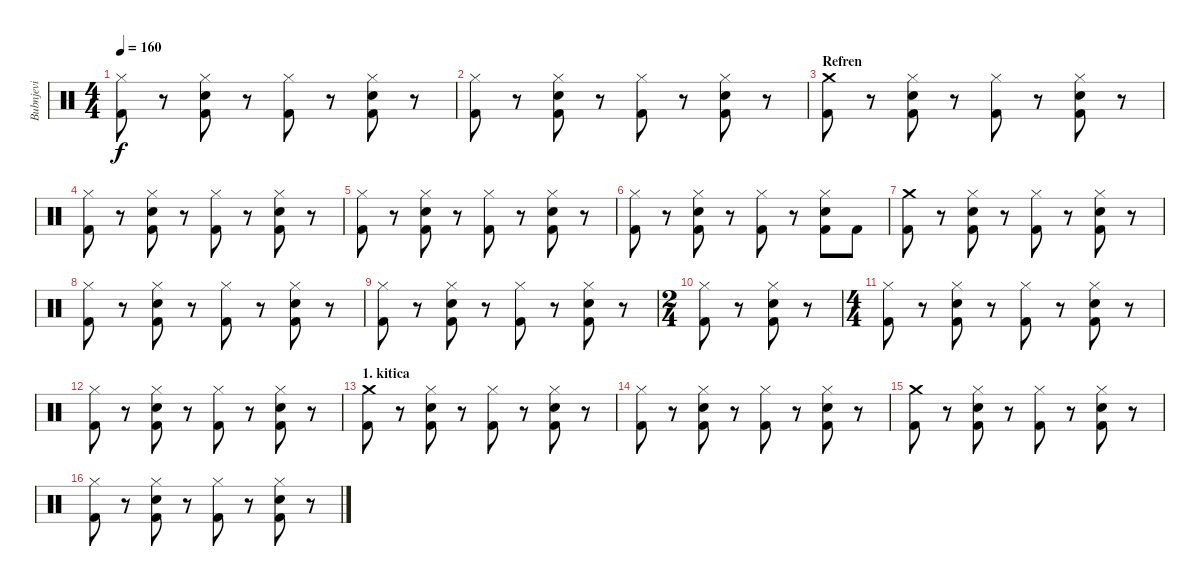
\track ("Bubnjevi" "Bubnjevi") {instrument percussion}
\staff {score}
\articulation defaults
\ts (4 4)
\tempo 160
\clef neutral
\ks c
("Hi-Hat (closed)" "Kick (hit) 2").8{dy f} r.8 ("Electric Snare (hit)" "Hi-Hat (closed)" "Kick (hit) 2").8 r.8 ("Hi-Hat (closed)" "Kick (hit) 2").8 r.8 ("Electric Snare (hit)" "Hi-Hat (closed)" "Kick (hit) 2").8 r.8 |
("Hi-Hat (closed)" "Kick (hit) 2").8 r.8 ("Electric Snare (hit)" "Hi-Hat (closed)" "Kick (hit) 2").8 r.8 ("Hi-Hat (closed)" "Kick (hit) 2").8 r.8 ("Electric Snare (hit)" "Hi-Hat (closed)" "Kick (hit) 2").8 r.8 |
\section ("" "Refren")
("Crash medium (hit)" "Kick (hit) 2").8 r.8 ("Electric Snare (hit)" "Hi-Hat (closed)" "Kick (hit) 2").8 r.8 ("Hi-Hat (closed)" "Kick (hit) 2").8 r.8 ("Electric Snare (hit)" "Hi-Hat (closed)" "Kick (hit) 2").8 r.8 |
("Hi-Hat (closed)" "Kick (hit) 2").8 r.8 ("Electric Snare (hit)" "Hi-Hat (closed)" "Kick (hit) 2").8 r.8 ("Hi-Hat (closed)" "Kick (hit) 2").8 r.8 ("Electric Snare (hit)" "Hi-Hat (closed)" "Kick (hit) 2").8 r.8 |
("Hi-Hat (closed)" "Kick (hit) 2").8 r.8 ("Electric Snare (hit)" "Hi-Hat (closed)" "Kick (hit) 2").8 r.8 ("Hi-Hat (closed)" "Kick (hit) 2").8 r.8 ("Electric Snare (hit)" "Hi-Hat (closed)" "Kick (hit) 2").8 r.8 |
("Hi-Hat (closed)" "Kick (hit) 2").8 r.8 ("Electric Snare (hit)" "Hi-Hat (closed)" "Kick (hit) 2").8 r.8 ("Hi-Hat (closed)" "Kick (hit) 2").8 r.8 ("Electric Snare (hit)" "Hi-Hat (closed)" "Kick (hit) 2").8 "Kick (hit) 2".8 |
("Crash medium (hit)" "Kick (hit) 2").8 r.8 ("Electric Snare (hit)" "Hi-Hat (closed)" "Kick (hit) 2").8 r.8 ("Hi-Hat (closed)" "Kick (hit) 2").8 r.8 ("Electric Snare (hit)" "Hi-Hat (closed)" "Kick (hit) 2").8 r.8 |
("Hi-Hat (closed)" "Kick (hit) 2").8 r.8 ("Electric Snare (hit)" "Hi-Hat (closed)" "Kick (hit) 2").8 r.8 ("Hi-Hat (closed)" "Kick (hit) 2").8 r.8 ("Electric Snare (hit)" "Hi-Hat (closed)" "Kick (hit) 2").8 r.8 |
("Hi-Hat (closed)" "Kick (hit) 2").8 r.8 ("Electric Snare (hit)" "Hi-Hat (closed)" "Kick (hit) 2").8 r.8 ("Hi-Hat (closed)" "Kick (hit) 2").8 r.8 ("Electric Snare (hit)" "Hi-Hat (closed)" "Kick (hit) 2").8 r.8 |
\ts (2 4)
("Hi-Hat (closed)" "Kick (hit) 2").8 r.8 ("Electric Snare (hit)" "Hi-Hat (closed)" "Kick (hit) 2").8 r.8 |
\ts (4 4)
("Hi-Hat (closed)" "Kick (hit) 2").8 r.8 ("Electric Snare (hit)" "Hi-Hat (closed)" "Kick (hit) 2").8 r.8 ("Hi-Hat (closed)" "Kick (hit) 2").8 r.8 ("Electric Snare (hit)" "Hi-Hat (closed)" "Kick (hit) 2").8 r.8 |
("Hi-Hat (closed)" "Kick (hit) 2").8 r.8 ("Electric Snare (hit)" "Hi-Hat (closed)" "Kick (hit) 2").8 r.8 ("Hi-Hat (closed)" "Kick (hit) 2").8 r.8 ("Electric Snare (hit)" "Hi-Hat (closed)" "Kick (hit) 2").8 r.8 |
\section ("" "1. kitica")
("Crash medium (hit)" "Kick (hit) 2").8 r.8 ("Electric Snare (hit)" "Hi-Hat (closed)" "Kick (hit) 2").8 r.8 ("Hi-Hat (closed)" "Kick (hit) 2").8 r.8 ("Electric Snare (hit)" "Hi-Hat (closed)" "Kick (hit) 2").8 r.8 |
("Hi-Hat (closed)" "Kick (hit) 2").8 r.8 ("Electric Snare (hit)" "Hi-Hat (closed)" "Kick (hit) 2").8 r.8 ("Hi-Hat (closed)" "Kick (hit) 2").8 r.8 ("Electric Snare (hit)" "Hi-Hat (closed)" "Kick (hit) 2").8 r.8 |
("Crash medium (hit)" "Kick (hit) 2").8 r.8 ("Electric Snare (hit)" "Hi-Hat (closed)" "Kick (hit) 2").8 r.8 ("Hi-Hat (closed)" "Kick (hit) 2").8 r.8 ("Electric Snare (hit)" "Hi-Hat (closed)" "Kick (hit) 2").8 r.8 |
("Hi-Hat (closed)" "Kick (hit) 2").8 r.8 ("Electric Snare (hit)" "Hi-Hat (closed)" "Kick (hit) 2").8 r.8 ("Hi-Hat (closed)" "Kick (hit) 2").8 r.8 ("Electric Snare (hit)" "Hi-Hat (closed)" "Kick (hit) 2").8 r.8
